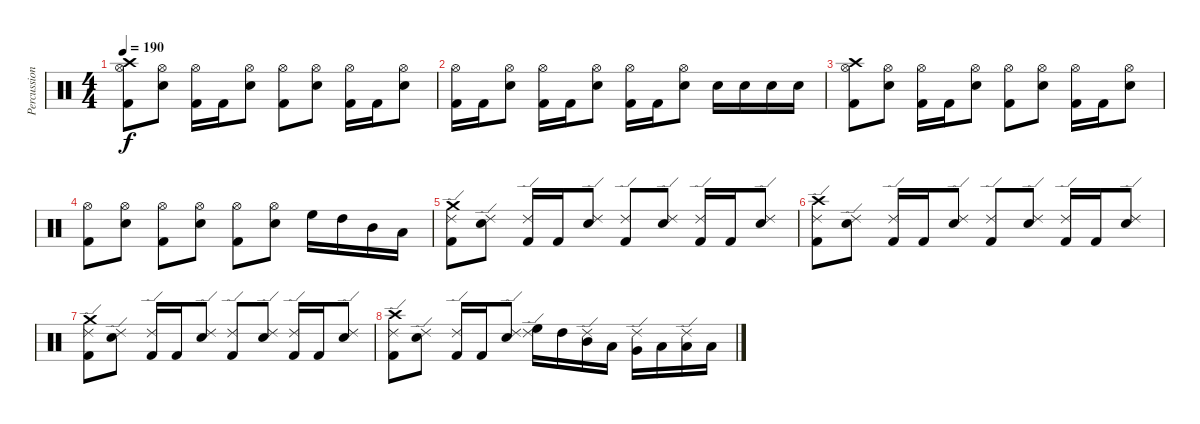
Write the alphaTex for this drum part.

\track ("Percussion" "Percussion") {instrument percussion}
\staff {score}
\articulation defaults
\ts (4 4)
\tempo 190
\clef neutral
\ks c
("Hi-Hat (open)" "Crash high (hit)" "Kick (hit) 2").8{dy f} ("Hi-Hat (open)" "Snare (hit) 2").8 ("Hi-Hat (open)" "Kick (hit) 2").16 "Kick (hit) 2".16 ("Hi-Hat (open)" "Snare (hit) 2").8 ("Hi-Hat (open)" "Kick (hit) 2").8 ("Hi-Hat (open)" "Snare (hit) 2").8 ("Hi-Hat (open)" "Kick (hit) 2").16 "Kick (hit) 2".16 ("Hi-Hat (open)" "Snare (hit) 2").8 |
("Hi-Hat (open)" "Kick (hit) 2").16 "Kick (hit) 2".16 ("Hi-Hat (open)" "Snare (hit) 2").8 ("Hi-Hat (open)" "Kick (hit) 2").16 "Kick (hit) 2".16 ("Hi-Hat (open)" "Snare (hit) 2").8 ("Hi-Hat (open)" "Kick (hit) 2").16 "Kick (hit) 2".16 ("Hi-Hat (open)" "Snare (hit) 2").8 "Snare (hit) 2".16 "Snare (hit) 2".16 "Snare (hit) 2".16 "Snare (hit) 2".16 |
("Hi-Hat (open)" "Crash high (hit)" "Kick (hit) 2").8 ("Hi-Hat (open)" "Snare (hit) 2").8 ("Hi-Hat (open)" "Kick (hit) 2").16 "Kick (hit) 2".16 ("Hi-Hat (open)" "Snare (hit) 2").8 ("Hi-Hat (open)" "Kick (hit) 2").8 ("Hi-Hat (open)" "Snare (hit) 2").8 ("Hi-Hat (open)" "Kick (hit) 2").16 "Kick (hit) 2".16 ("Hi-Hat (open)" "Snare (hit) 2").8 |
("Hi-Hat (open)" "Kick (hit) 2").8 ("Hi-Hat (open)" "Snare (hit) 2").8 ("Hi-Hat (open)" "Kick (hit) 2").8 ("Hi-Hat (open)" "Snare (hit) 2").8 ("Hi-Hat (open)" "Kick (hit) 2").8 ("Hi-Hat (open)" "Snare (hit) 2").8 "High Floor Tom (hit)".16 "High Tom (hit)".16 "Mid Tom (hit)".16 "Low Tom (hit)".16 |
("Ride (edge) 2" "Crash medium (hit)" "Kick (hit) 2").8 ("Ride (edge) 2" "Snare (hit) 2").8 ("Ride (edge) 2" "Kick (hit) 2").16 "Kick (hit) 2".16 ("Ride (edge) 2" "Snare (hit) 2").8 ("Ride (edge) 2" "Kick (hit) 2").8 ("Ride (edge) 2" "Snare (hit) 2").8 ("Ride (edge) 2" "Kick (hit) 2").16 "Kick (hit) 2".16 ("Ride (edge) 2" "Snare (hit) 2").8 |
("Ride (edge) 2" "Crash high (hit)" "Kick (hit) 2").8 ("Ride (edge) 2" "Snare (hit) 2").8 ("Ride (edge) 2" "Kick (hit) 2").16 "Kick (hit) 2".16 ("Ride (edge) 2" "Snare (hit) 2").8 ("Ride (edge) 2" "Kick (hit) 2").8 ("Ride (edge) 2" "Snare (hit) 2").8 ("Ride (edge) 2" "Kick (hit) 2").16 "Kick (hit) 2".16 ("Ride (edge) 2" "Snare (hit) 2").8 |
("Ride (edge) 2" "Crash medium (hit)" "Kick (hit) 2").8 ("Ride (edge) 2" "Snare (hit) 2").8 ("Ride (edge) 2" "Kick (hit) 2").16 "Kick (hit) 2".16 ("Ride (edge) 2" "Snare (hit) 2").8 ("Ride (edge) 2" "Kick (hit) 2").8 ("Ride (edge) 2" "Snare (hit) 2").8 ("Ride (edge) 2" "Kick (hit) 2").16 "Kick (hit) 2".16 ("Ride (edge) 2" "Snare (hit) 2").8 |
("Ride (edge) 2" "Crash high (hit)" "Kick (hit) 2").8 ("Ride (edge) 2" "Snare (hit) 2").8 ("Ride (edge) 2" "Kick (hit) 2").16 "Kick (hit) 2".16 ("Ride (edge) 2" "Snare (hit) 2").8 ("Ride (edge) 2" "High Floor Tom (hit)").16 "High Tom (hit)".16 ("Ride (edge) 2" "Mid Tom (hit)").16 "Low Tom (hit)".16 ("Ride (edge) 2" "Very Low Tom (hit)").16 "Low Floor Tom (hit)".16 ("Ride (edge) 2" "Low Floor Tom (hit)").16 "Low Floor Tom (hit)".16
